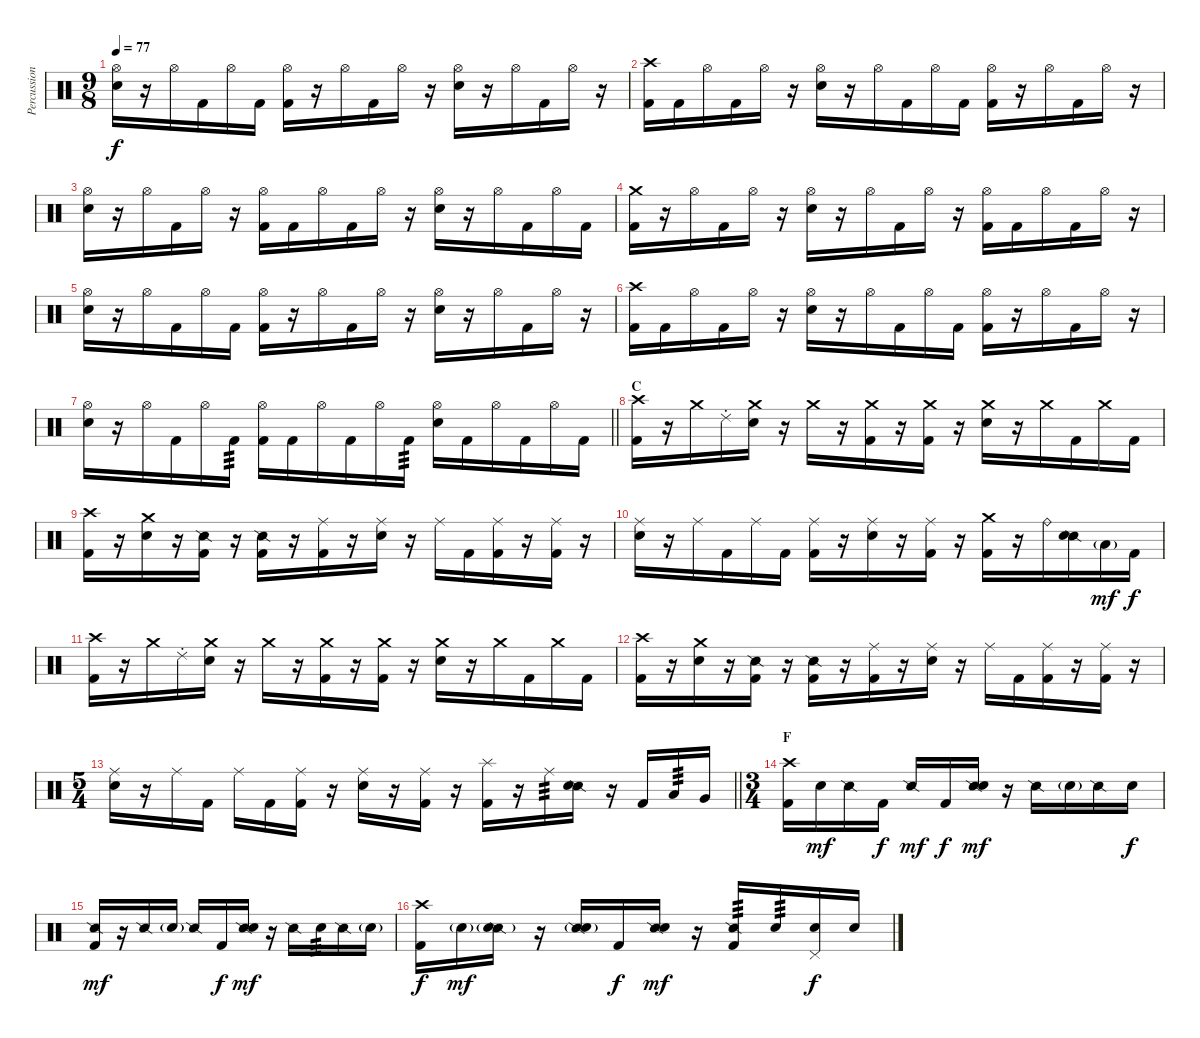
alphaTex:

\track ("Percussion" "Percussion") {instrument percussion}
\staff {score}
\articulation defaults
\ts (9 8)
\tempo 77
\clef neutral
\ks c
("Hi-Hat (open)" "Snare (hit) 2").16{dy f} r.16 "Hi-Hat (open)".16 "Kick (hit) 2".16 "Hi-Hat (open)".16 "Kick (hit) 2".16 ("Hi-Hat (open)" "Kick (hit) 2").16 r.16 "Hi-Hat (open)".16 "Kick (hit) 2".16 "Hi-Hat (open)".16 r.16 ("Hi-Hat (open)" "Snare (hit) 2").16 r.16 "Hi-Hat (open)".16 "Kick (hit) 2".16 "Hi-Hat (open)".16 r.16 |
("Crash high (hit)" "Kick (hit) 2").16 "Kick (hit) 2".16 "Hi-Hat (open)".16 "Kick (hit) 2".16 "Hi-Hat (open)".16 r.16 ("Hi-Hat (open)" "Snare (hit) 2").16 r.16 "Hi-Hat (open)".16 "Kick (hit) 2".16 "Hi-Hat (open)".16 "Kick (hit) 2".16 ("Hi-Hat (open)" "Kick (hit) 2").16 r.16 "Hi-Hat (open)".16 "Kick (hit) 2".16 "Hi-Hat (open)".16 r.16 |
("Hi-Hat (open)" "Snare (hit) 2").16 r.16 "Hi-Hat (open)".16 "Kick (hit) 2".16 "Hi-Hat (open)".16 r.16 ("Hi-Hat (open)" "Kick (hit) 2").16 "Kick (hit) 2".16 "Hi-Hat (open)".16 "Kick (hit) 2".16 "Hi-Hat (open)".16 r.16 ("Hi-Hat (open)" "Snare (hit) 2").16 r.16 "Hi-Hat (open)".16 "Kick (hit) 2".16 "Hi-Hat (open)".16 "Kick (hit) 2".16 |
("Crash medium (hit)" "Kick (hit) 2").16 r.16 "Hi-Hat (open)".16 "Kick (hit) 2".16 "Hi-Hat (open)".16 r.16 ("Hi-Hat (open)" "Snare (hit) 2").16 r.16 "Hi-Hat (open)".16 "Kick (hit) 2".16 "Hi-Hat (open)".16 r.16 ("Hi-Hat (open)" "Kick (hit) 2").16 "Kick (hit) 2".16 "Hi-Hat (open)".16 "Kick (hit) 2".16 "Hi-Hat (open)".16 r.16 |
("Hi-Hat (open)" "Snare (hit) 2").16 r.16 "Hi-Hat (open)".16 "Kick (hit) 2".16 "Hi-Hat (open)".16 "Kick (hit) 2".16 ("Hi-Hat (open)" "Kick (hit) 2").16 r.16 "Hi-Hat (open)".16 "Kick (hit) 2".16 "Hi-Hat (open)".16 r.16 ("Hi-Hat (open)" "Snare (hit) 2").16 r.16 "Hi-Hat (open)".16 "Kick (hit) 2".16 "Hi-Hat (open)".16 r.16 |
("Crash high (hit)" "Kick (hit) 2").16 "Kick (hit) 2".16 "Hi-Hat (open)".16 "Kick (hit) 2".16 "Hi-Hat (open)".16 r.16 ("Hi-Hat (open)" "Snare (hit) 2").16 r.16 "Hi-Hat (open)".16 "Kick (hit) 2".16 "Hi-Hat (open)".16 "Kick (hit) 2".16 ("Hi-Hat (open)" "Kick (hit) 2").16 r.16 "Hi-Hat (open)".16 "Kick (hit) 2".16 "Hi-Hat (open)".16 r.16 |
\barLineRight lightlight
("Hi-Hat (open)" "Snare (hit) 2").16 r.16 "Hi-Hat (open)".16 "Kick (hit) 2".16 "Hi-Hat (open)".16 "Kick (hit) 2".16{tp 3} ("Hi-Hat (open)" "Kick (hit) 2").16 "Kick (hit) 2".16 "Hi-Hat (open)".16 "Kick (hit) 2".16 "Hi-Hat (open)".16 "Kick (hit) 2".16{tp 3} ("Hi-Hat (open)" "Snare (hit) 2").16 "Kick (hit) 2".16 "Hi-Hat (open)".16 "Kick (hit) 2".16 "Hi-Hat (open)".16 "Kick (hit) 2".16 |
\section ("" "C")
("Crash high (hit)" "Kick (hit) 2").16 r.16 "Crash medium (hit)".16 "Ride (choke) 2".16 ("Crash medium (hit)" "Snare (hit) 2").16 r.16 "Crash medium (hit)".16 r.16 ("Crash medium (hit)" "Kick (hit) 2").16 r.16 ("Crash medium (hit)" "Kick (hit) 2").16 r.16 ("Crash medium (hit)" "Snare (hit) 2").16 r.16 "Crash medium (hit)".16 "Kick (hit) 2".16 "Crash medium (hit)".16 "Kick (hit) 2".16 |
("Crash high (hit)" "Kick (hit) 2").16 r.16 ("Crash medium (hit)" "Snare (hit) 2").16 r.16 ("Snare (side stick) 2" "Kick (hit) 2").16 r.16 ("Snare (side stick) 2" "Kick (hit) 2").16 r.16 ("Ride (middle)" "Kick (hit) 2").16 r.16 ("Ride (middle)" "Snare (hit) 2").16 r.16 "Ride (middle)".16 "Kick (hit) 2".16 ("Ride (middle)" "Kick (hit) 2").16 r.16 ("Ride (middle)" "Kick (hit) 2").16 r.16 |
("Ride (middle)" "Snare (hit) 2").16 r.16 "Ride (middle)".16 "Kick (hit) 2".16 "Ride (middle)".16 "Kick (hit) 2".16 ("Ride (middle)" "Kick (hit) 2").16 r.16 ("Ride (middle)" "Snare (hit) 2").16 r.16 ("Ride (middle)" "Kick (hit) 2").16 r.16 ("Crash medium (hit)" "Kick (hit) 2").16 r.16 "Ride (bell)".16 ("Snare (side stick) 2" "Snare (hit) 2").16 "Low Tom (hit)"{g}.16{dy mf} "Kick (hit) 2".16{dy f} |
("Crash high (hit)" "Kick (hit) 2").16 r.16 "Crash medium (hit)".16 "Ride (choke) 2".16 ("Crash medium (hit)" "Snare (hit) 2").16 r.16 "Crash medium (hit)".16 r.16 ("Crash medium (hit)" "Kick (hit) 2").16 r.16 ("Crash medium (hit)" "Kick (hit) 2").16 r.16 ("Crash medium (hit)" "Snare (hit) 2").16 r.16 "Crash medium (hit)".16 "Kick (hit) 2".16 "Crash medium (hit)".16 "Kick (hit) 2".16 |
("Crash high (hit)" "Kick (hit) 2").16 r.16 ("Crash medium (hit)" "Snare (hit) 2").16 r.16 ("Snare (side stick) 2" "Kick (hit) 2").16 r.16 ("Snare (side stick) 2" "Kick (hit) 2").16 r.16 ("Ride (middle)" "Kick (hit) 2").16 r.16 ("Ride (middle)" "Snare (hit) 2").16 r.16 "Ride (middle)".16 "Kick (hit) 2".16 ("Ride (middle)" "Kick (hit) 2").16 r.16 ("Ride (middle)" "Kick (hit) 2").16 r.16 |
\ts (5 4)
\barLineRight lightlight
("Ride (middle)" "Snare (hit) 2").16 r.16 "Ride (middle)".16 "Kick (hit) 2".16 "Ride (middle)".16 "Kick (hit) 2".16 ("Ride (middle)" "Kick (hit) 2").16 r.16 ("Ride (middle)" "Snare (hit) 2").16 r.16 ("Ride (middle)" "Kick (hit) 2").16 r.16 ("Splash (hit)" "Kick (hit) 2").16 r.16 "Ride (middle)".16{tp 3} ("Snare (side stick) 2" "Snare (hit) 2").16 r.16 "Kick (hit) 2".16 "Low Tom (hit)".16{tp 3} "Very Low Tom (hit)".16 |
\ts (3 4)
\section ("" "F")
("Crash high (hit)" "Kick (hit) 2").16 "Snare (hit) 2".16{dy mf} "Snare (side stick) 2".16 "Kick (hit) 2".16{dy f} "Snare (side stick) 2".16{dy mf} "Kick (hit) 2".16{dy f} ("Snare (side stick) 2" "Snare (hit) 2").16{dy mf} r.16 "Snare (side stick) 2".16 "Snare (hit) 2"{g}.16 "Snare (side stick) 2".16 "Snare (hit) 2".16{dy f} |
("Snare (side stick) 2" "Kick (hit) 2").16{dy mf} r.16 "Snare (side stick) 2".16 "Snare (hit) 2"{g}.16 "Snare (side stick) 2".16 "Kick (hit) 2".16{dy f} ("Snare (side stick) 2" "Snare (hit) 2").16{dy mf} r.16 "Snare (side stick) 2".16 "Snare (hit) 2".16{tp 3} "Snare (side stick) 2".16 "Snare (hit) 2"{g}.16 |
("Crash high (hit)" "Kick (hit) 2").16{dy f} "Snare (hit) 2"{g}.16{dy mf} ("Snare (side stick) 2" "Snare (hit) 2"{g}).16 r.16 ("Snare (side stick) 2" "Snare (hit) 2"{g}).16 "Kick (hit) 2".16{dy f} ("Snare (side stick) 2" "Snare (hit) 2").16{dy mf} r.16 ("Snare (side stick) 2" "Kick (hit) 2").16{tp 3} "Snare (hit) 2".16{tp 3} ("Pedal Hi-Hat (hit)" "Snare (hit) 2").16{dy f} "Snare (hit) 2".16
